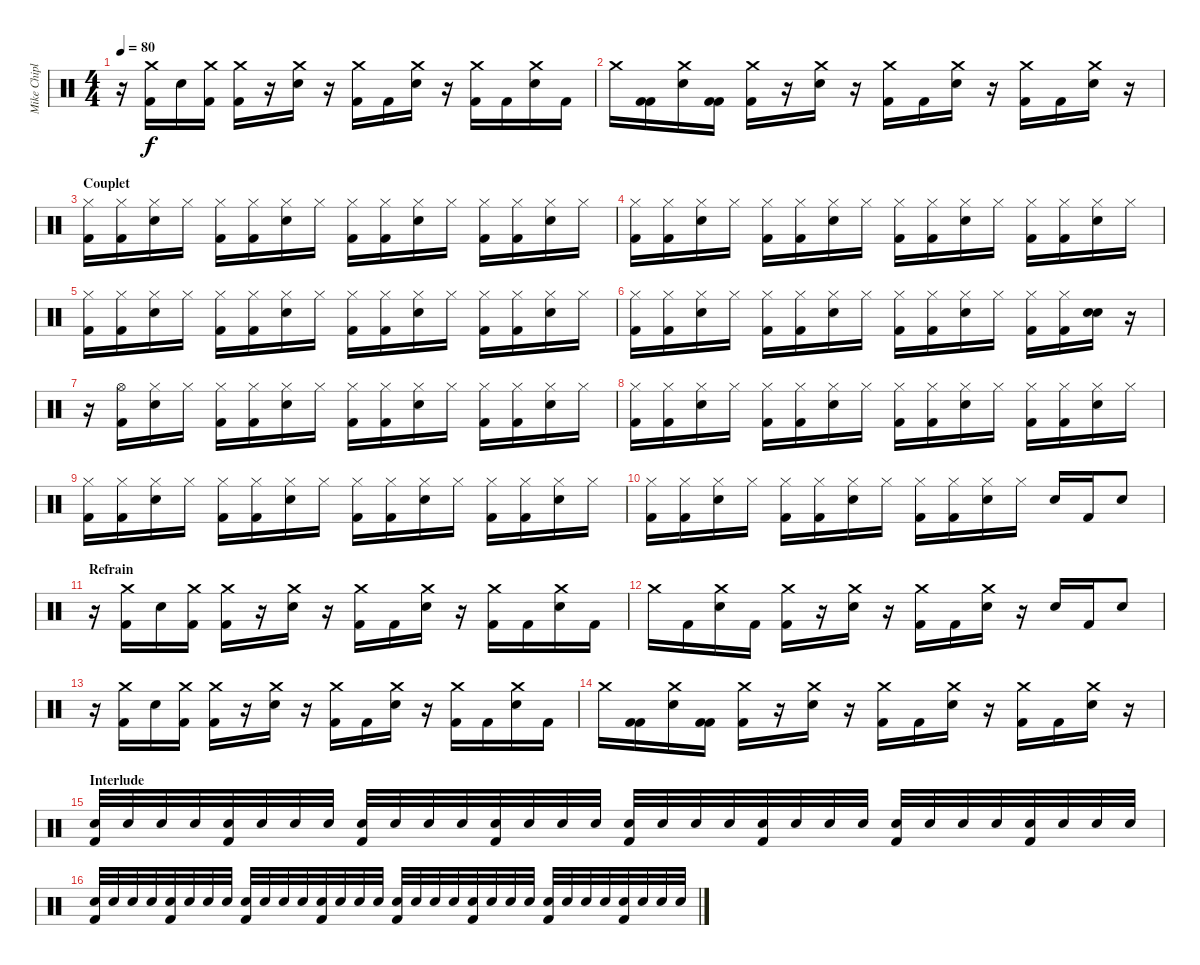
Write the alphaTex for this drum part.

\track ("Mike Chiplin" "Mike Chipl") {instrument percussion}
\staff {score}
\articulation defaults
\ts (4 4)
\tempo 80
\clef neutral
\ks c
r.16{dy f} ("Crash medium (hit)" "Kick (hit) 2").16 "Snare (hit) 2".16 ("Crash medium (hit)" "Kick (hit) 2").16 ("Crash medium (hit)" "Kick (hit) 2").16 r.16 ("Crash medium (hit)" "Snare (hit) 2").16 r.16 ("Crash medium (hit)" "Kick (hit) 2").16 "Kick (hit) 2".16 ("Crash medium (hit)" "Snare (hit) 2").16 r.16 ("Crash medium (hit)" "Kick (hit) 2").16 "Kick (hit) 2".16 ("Crash medium (hit)" "Snare (hit) 2").16 "Kick (hit) 2".16 |
"Crash medium (hit)".16 ("Kick (hit) 2" "Kick (hit) 2").16 ("Crash medium (hit)" "Snare (hit) 2").16 ("Kick (hit) 2" "Kick (hit) 2").16 ("Crash medium (hit)" "Kick (hit) 2").16 r.16 ("Crash medium (hit)" "Snare (hit) 2").16 r.16 ("Crash medium (hit)" "Kick (hit) 2").16 "Kick (hit) 2".16 ("Crash medium (hit)" "Snare (hit) 2").16 r.16 ("Crash medium (hit)" "Kick (hit) 2").16 "Kick (hit) 2".16 ("Crash medium (hit)" "Snare (hit) 2").16 r.16 |
\section ("" "Couplet")
("Kick (hit) 2" "Hi-Hat (closed)").16 ("Kick (hit) 2" "Hi-Hat (closed)").16 ("Snare (hit) 2" "Hi-Hat (closed)").16 "Hi-Hat (closed)".16 ("Kick (hit) 2" "Hi-Hat (closed)").16 ("Kick (hit) 2" "Hi-Hat (closed)").16 ("Snare (hit) 2" "Hi-Hat (closed)").16 "Hi-Hat (closed)".16 ("Kick (hit) 2" "Hi-Hat (closed)").16 ("Kick (hit) 2" "Hi-Hat (closed)").16 ("Snare (hit) 2" "Hi-Hat (closed)").16 "Hi-Hat (closed)".16 ("Kick (hit) 2" "Hi-Hat (closed)").16 ("Kick (hit) 2" "Hi-Hat (closed)").16 ("Snare (hit) 2" "Hi-Hat (closed)").16 "Hi-Hat (closed)".16 |
("Kick (hit) 2" "Hi-Hat (closed)").16 ("Kick (hit) 2" "Hi-Hat (closed)").16 ("Snare (hit) 2" "Hi-Hat (closed)").16 "Hi-Hat (closed)".16 ("Kick (hit) 2" "Hi-Hat (closed)").16 ("Kick (hit) 2" "Hi-Hat (closed)").16 ("Snare (hit) 2" "Hi-Hat (closed)").16 "Hi-Hat (closed)".16 ("Kick (hit) 2" "Hi-Hat (closed)").16 ("Kick (hit) 2" "Hi-Hat (closed)").16 ("Snare (hit) 2" "Hi-Hat (closed)").16 "Hi-Hat (closed)".16 ("Kick (hit) 2" "Hi-Hat (closed)").16 ("Kick (hit) 2" "Hi-Hat (closed)").16 ("Snare (hit) 2" "Hi-Hat (closed)").16 "Hi-Hat (closed)".16 |
("Kick (hit) 2" "Hi-Hat (closed)").16 ("Kick (hit) 2" "Hi-Hat (closed)").16 ("Snare (hit) 2" "Hi-Hat (closed)").16 "Hi-Hat (closed)".16 ("Kick (hit) 2" "Hi-Hat (closed)").16 ("Kick (hit) 2" "Hi-Hat (closed)").16 ("Snare (hit) 2" "Hi-Hat (closed)").16 "Hi-Hat (closed)".16 ("Kick (hit) 2" "Hi-Hat (closed)").16 ("Kick (hit) 2" "Hi-Hat (closed)").16 ("Snare (hit) 2" "Hi-Hat (closed)").16 "Hi-Hat (closed)".16 ("Kick (hit) 2" "Hi-Hat (closed)").16 ("Kick (hit) 2" "Hi-Hat (closed)").16 ("Snare (hit) 2" "Hi-Hat (closed)").16 "Hi-Hat (closed)".16 |
("Kick (hit) 2" "Hi-Hat (closed)").16 ("Kick (hit) 2" "Hi-Hat (closed)").16 ("Snare (hit) 2" "Hi-Hat (closed)").16 "Hi-Hat (closed)".16 ("Kick (hit) 2" "Hi-Hat (closed)").16 ("Kick (hit) 2" "Hi-Hat (closed)").16 ("Snare (hit) 2" "Hi-Hat (closed)").16 "Hi-Hat (closed)".16 ("Kick (hit) 2" "Hi-Hat (closed)").16 ("Kick (hit) 2" "Hi-Hat (closed)").16 ("Snare (hit) 2" "Hi-Hat (closed)").16 "Hi-Hat (closed)".16 ("Kick (hit) 2" "Hi-Hat (closed)").16 ("Kick (hit) 2" "Hi-Hat (closed)").16 ("Snare (hit) 2" "Snare (hit) 2").16 r.16 |
r.16 ("Kick (hit) 2" "Hi-Hat (open)").16 ("Snare (hit) 2" "Hi-Hat (closed)").16 "Hi-Hat (closed)".16 ("Kick (hit) 2" "Hi-Hat (closed)").16 ("Kick (hit) 2" "Hi-Hat (closed)").16 ("Snare (hit) 2" "Hi-Hat (closed)").16 "Hi-Hat (closed)".16 ("Kick (hit) 2" "Hi-Hat (closed)").16 ("Kick (hit) 2" "Hi-Hat (closed)").16 ("Snare (hit) 2" "Hi-Hat (closed)").16 "Hi-Hat (closed)".16 ("Kick (hit) 2" "Hi-Hat (closed)").16 ("Kick (hit) 2" "Hi-Hat (closed)").16 ("Snare (hit) 2" "Hi-Hat (closed)").16 "Hi-Hat (closed)".16 |
("Kick (hit) 2" "Hi-Hat (closed)").16 ("Kick (hit) 2" "Hi-Hat (closed)").16 ("Snare (hit) 2" "Hi-Hat (closed)").16 "Hi-Hat (closed)".16 ("Kick (hit) 2" "Hi-Hat (closed)").16 ("Kick (hit) 2" "Hi-Hat (closed)").16 ("Snare (hit) 2" "Hi-Hat (closed)").16 "Hi-Hat (closed)".16 ("Kick (hit) 2" "Hi-Hat (closed)").16 ("Kick (hit) 2" "Hi-Hat (closed)").16 ("Snare (hit) 2" "Hi-Hat (closed)").16 "Hi-Hat (closed)".16 ("Kick (hit) 2" "Hi-Hat (closed)").16 ("Kick (hit) 2" "Hi-Hat (closed)").16 ("Snare (hit) 2" "Hi-Hat (closed)").16 "Hi-Hat (closed)".16 |
("Kick (hit) 2" "Hi-Hat (closed)").16 ("Kick (hit) 2" "Hi-Hat (closed)").16 ("Snare (hit) 2" "Hi-Hat (closed)").16 "Hi-Hat (closed)".16 ("Kick (hit) 2" "Hi-Hat (closed)").16 ("Kick (hit) 2" "Hi-Hat (closed)").16 ("Snare (hit) 2" "Hi-Hat (closed)").16 "Hi-Hat (closed)".16 ("Kick (hit) 2" "Hi-Hat (closed)").16 ("Kick (hit) 2" "Hi-Hat (closed)").16 ("Snare (hit) 2" "Hi-Hat (closed)").16 "Hi-Hat (closed)".16 ("Kick (hit) 2" "Hi-Hat (closed)").16 ("Kick (hit) 2" "Hi-Hat (closed)").16 ("Snare (hit) 2" "Hi-Hat (closed)").16 "Hi-Hat (closed)".16 |
("Kick (hit) 2" "Hi-Hat (closed)").16 ("Kick (hit) 2" "Hi-Hat (closed)").16 ("Snare (hit) 2" "Hi-Hat (closed)").16 "Hi-Hat (closed)".16 ("Kick (hit) 2" "Hi-Hat (closed)").16 ("Kick (hit) 2" "Hi-Hat (closed)").16 ("Snare (hit) 2" "Hi-Hat (closed)").16 "Hi-Hat (closed)".16 ("Kick (hit) 2" "Hi-Hat (closed)").16 ("Kick (hit) 2" "Hi-Hat (closed)").16 ("Snare (hit) 2" "Hi-Hat (closed)").16 "Hi-Hat (closed)".16 "Snare (hit) 2".16 "Kick (hit) 2".16 "Snare (hit) 2".8 |
\section ("" "Refrain")
r.16 ("Crash medium (hit)" "Kick (hit) 2").16 "Snare (hit) 2".16 ("Crash medium (hit)" "Kick (hit) 2").16 ("Crash medium (hit)" "Kick (hit) 2").16 r.16 ("Crash medium (hit)" "Snare (hit) 2").16 r.16 ("Crash medium (hit)" "Kick (hit) 2").16 "Kick (hit) 2".16 ("Crash medium (hit)" "Snare (hit) 2").16 r.16 ("Crash medium (hit)" "Kick (hit) 2").16 "Kick (hit) 2".16 ("Crash medium (hit)" "Snare (hit) 2").16 "Kick (hit) 2".16 |
"Crash medium (hit)".16 "Kick (hit) 2".16 ("Snare (hit) 2" "Crash medium (hit)").16 "Kick (hit) 2".16 ("Kick (hit) 2" "Crash medium (hit)").16 r.16 ("Snare (hit) 2" "Crash medium (hit)").16 r.16 ("Kick (hit) 2" "Crash medium (hit)").16 "Kick (hit) 2".16 ("Crash medium (hit)" "Snare (hit) 2").16 r.16 "Snare (hit) 2".16 "Kick (hit) 2".16 "Snare (hit) 2".8 |
r.16 ("Crash medium (hit)" "Kick (hit) 2").16 "Snare (hit) 2".16 ("Crash medium (hit)" "Kick (hit) 2").16 ("Crash medium (hit)" "Kick (hit) 2").16 r.16 ("Crash medium (hit)" "Snare (hit) 2").16 r.16 ("Crash medium (hit)" "Kick (hit) 2").16 "Kick (hit) 2".16 ("Crash medium (hit)" "Snare (hit) 2").16 r.16 ("Crash medium (hit)" "Kick (hit) 2").16 "Kick (hit) 2".16 ("Crash medium (hit)" "Snare (hit) 2").16 "Kick (hit) 2".16 |
"Crash medium (hit)".16 ("Kick (hit) 2" "Kick (hit) 2").16 ("Crash medium (hit)" "Snare (hit) 2").16 ("Kick (hit) 2" "Kick (hit) 2").16 ("Crash medium (hit)" "Kick (hit) 2").16 r.16 ("Crash medium (hit)" "Snare (hit) 2").16 r.16 ("Crash medium (hit)" "Kick (hit) 2").16 "Kick (hit) 2".16 ("Crash medium (hit)" "Snare (hit) 2").16 r.16 ("Crash medium (hit)" "Kick (hit) 2").16 "Kick (hit) 2".16 ("Crash medium (hit)" "Snare (hit) 2").16 r.16 |
\section ("" "Interlude")
("Kick (hit) 2" "Snare (hit) 2").32 "Snare (hit) 2".32 "Snare (hit) 2".32 "Snare (hit) 2".32 ("Kick (hit) 2" "Snare (hit) 2").32 "Snare (hit) 2".32 "Snare (hit) 2".32 "Snare (hit) 2".32 ("Kick (hit) 2" "Snare (hit) 2").32 "Snare (hit) 2".32 "Snare (hit) 2".32 "Snare (hit) 2".32 ("Kick (hit) 2" "Snare (hit) 2").32 "Snare (hit) 2".32 "Snare (hit) 2".32 "Snare (hit) 2".32 ("Kick (hit) 2" "Snare (hit) 2").32 "Snare (hit) 2".32 "Snare (hit) 2".32 "Snare (hit) 2".32 ("Kick (hit) 2" "Snare (hit) 2").32 "Snare (hit) 2".32 "Snare (hit) 2".32 "Snare (hit) 2".32 ("Kick (hit) 2" "Snare (hit) 2").32 "Snare (hit) 2".32 "Snare (hit) 2".32 "Snare (hit) 2".32 ("Kick (hit) 2" "Snare (hit) 2").32 "Snare (hit) 2".32 "Snare (hit) 2".32 "Snare (hit) 2".32 |
("Kick (hit) 2" "Snare (hit) 2").32 "Snare (hit) 2".32 "Snare (hit) 2".32 "Snare (hit) 2".32 ("Kick (hit) 2" "Snare (hit) 2").32 "Snare (hit) 2".32 "Snare (hit) 2".32 "Snare (hit) 2".32 ("Kick (hit) 2" "Snare (hit) 2").32 "Snare (hit) 2".32 "Snare (hit) 2".32 "Snare (hit) 2".32 ("Kick (hit) 2" "Snare (hit) 2").32 "Snare (hit) 2".32 "Snare (hit) 2".32 "Snare (hit) 2".32 ("Kick (hit) 2" "Snare (hit) 2").32 "Snare (hit) 2".32 "Snare (hit) 2".32 "Snare (hit) 2".32 ("Kick (hit) 2" "Snare (hit) 2").32 "Snare (hit) 2".32 "Snare (hit) 2".32 "Snare (hit) 2".32 ("Kick (hit) 2" "Snare (hit) 2").32 "Snare (hit) 2".32 "Snare (hit) 2".32 "Snare (hit) 2".32 ("Kick (hit) 2" "Snare (hit) 2").32 "Snare (hit) 2".32 "Snare (hit) 2".32 "Snare (hit) 2".32
